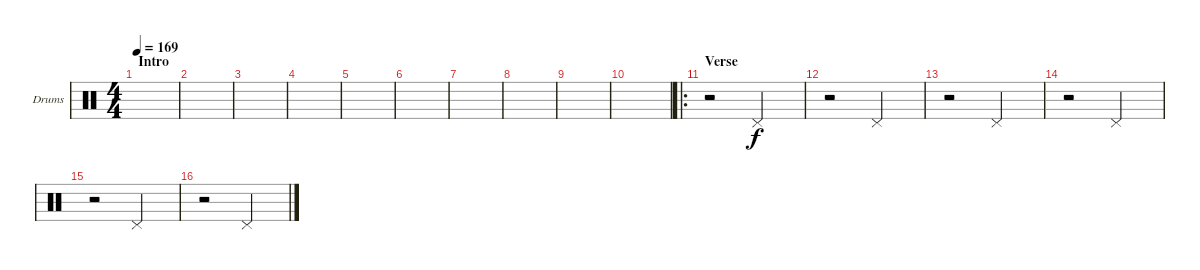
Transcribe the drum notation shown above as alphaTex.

\bracketExtendMode groupsimilarinstruments
\firstSystemTrackNameOrientation horizontal
\otherSystemsTrackNameOrientation horizontal
\track ("Drumkit" "Drums") {instrument percussion}
\staff {score}
\articulation defaults
\ts (4 4)
\section ("" "Intro")
\tempo 169
\clef neutral
\ks c
|
|
|
|
|
|
|
|
|
|
\ro
\section ("" "Verse")
r.2 "Pedal Hi-Hat (hit)".2 |
r.2 "Pedal Hi-Hat (hit)".2 |
r.2 "Pedal Hi-Hat (hit)".2 |
r.2 "Pedal Hi-Hat (hit)".2 |
r.2 "Pedal Hi-Hat (hit)".2 |
r.2 "Pedal Hi-Hat (hit)".2
